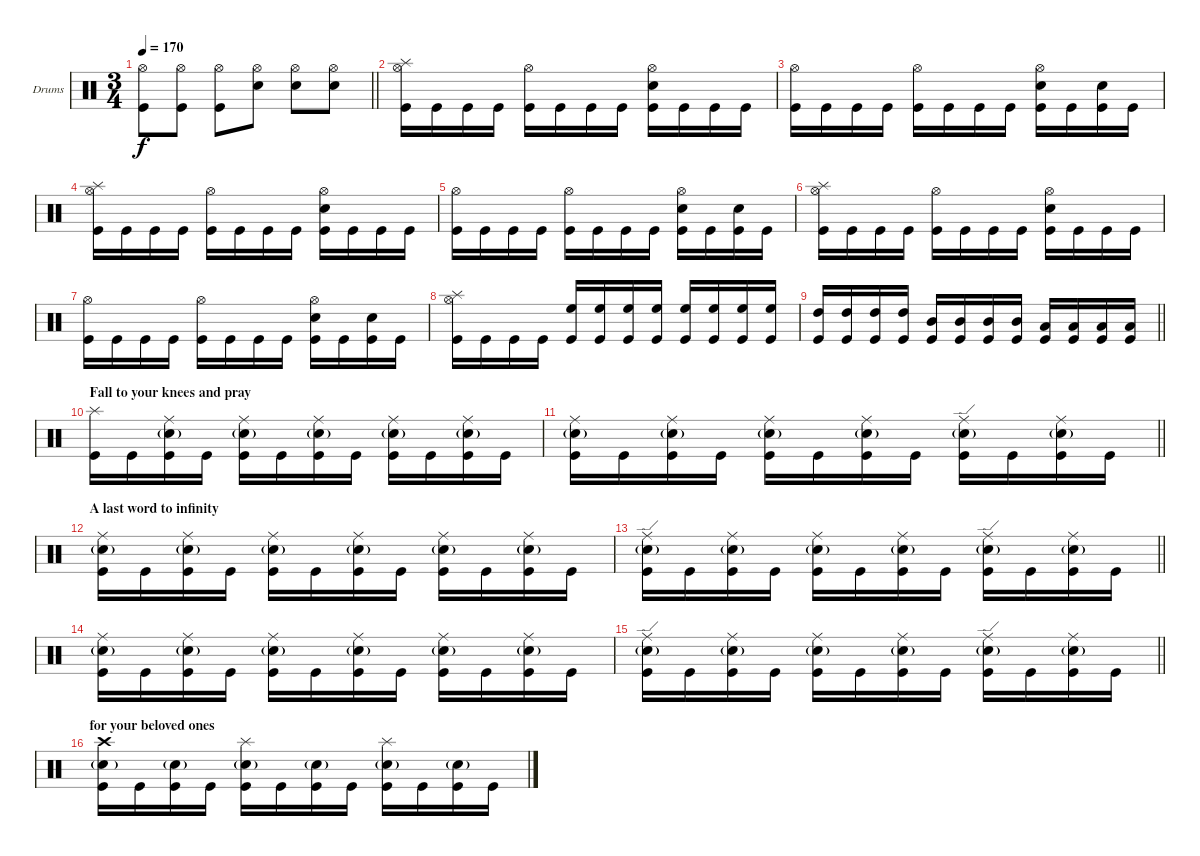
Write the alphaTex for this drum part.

\bracketExtendMode groupsimilarinstruments
\firstSystemTrackNameOrientation horizontal
\otherSystemsTrackNameOrientation horizontal
\track ("Drumkit" "Drums") {instrument percussion}
\staff {score}
\articulation defaults
\ts (3 4)
\tempo 170
\clef neutral
\barLineRight lightlight
\ks c
("Hi-Hat (open)" "Kick (hit)").8{dy f} ("Hi-Hat (open)" "Kick (hit)").8 ("Hi-Hat (open)" "Kick (hit)").8 ("Hi-Hat (open)" "Snare (hit) 2").8 ("Hi-Hat (open)" "Snare (hit) 2").8 ("Hi-Hat (open)" "Snare (hit) 2").8 |
("Splash (hit)" "Hi-Hat (open)" "Kick (hit)").16 "Kick (hit)".16 "Kick (hit)".16 "Kick (hit)".16 ("Hi-Hat (open)" "Kick (hit)").16 "Kick (hit)".16 "Kick (hit)".16 "Kick (hit)".16 ("Hi-Hat (open)" "Snare (hit) 2" "Kick (hit)").16 "Kick (hit)".16 "Kick (hit)".16 "Kick (hit)".16 |
("Hi-Hat (open)" "Kick (hit)").16 "Kick (hit)".16 "Kick (hit)".16 "Kick (hit)".16 ("Hi-Hat (open)" "Kick (hit)").16 "Kick (hit)".16 "Kick (hit)".16 "Kick (hit)".16 ("Hi-Hat (open)" "Snare (hit) 2" "Kick (hit)").16 "Kick (hit)".16 ("Snare (hit) 2" "Kick (hit)").16 "Kick (hit)".16 |
("Splash (hit)" "Hi-Hat (open)" "Kick (hit)").16 "Kick (hit)".16 "Kick (hit)".16 "Kick (hit)".16 ("Hi-Hat (open)" "Kick (hit)").16 "Kick (hit)".16 "Kick (hit)".16 "Kick (hit)".16 ("Hi-Hat (open)" "Snare (hit) 2" "Kick (hit)").16 "Kick (hit)".16 "Kick (hit)".16 "Kick (hit)".16 |
("Hi-Hat (open)" "Kick (hit)").16 "Kick (hit)".16 "Kick (hit)".16 "Kick (hit)".16 ("Hi-Hat (open)" "Kick (hit)").16 "Kick (hit)".16 "Kick (hit)".16 "Kick (hit)".16 ("Hi-Hat (open)" "Snare (hit) 2" "Kick (hit)").16 "Kick (hit)".16 ("Snare (hit) 2" "Kick (hit)").16 "Kick (hit)".16 |
("Splash (hit)" "Hi-Hat (open)" "Kick (hit)").16 "Kick (hit)".16 "Kick (hit)".16 "Kick (hit)".16 ("Hi-Hat (open)" "Kick (hit)").16 "Kick (hit)".16 "Kick (hit)".16 "Kick (hit)".16 ("Hi-Hat (open)" "Snare (hit) 2" "Kick (hit)").16 "Kick (hit)".16 "Kick (hit)".16 "Kick (hit)".16 |
("Hi-Hat (open)" "Kick (hit)").16 "Kick (hit)".16 "Kick (hit)".16 "Kick (hit)".16 ("Hi-Hat (open)" "Kick (hit)").16 "Kick (hit)".16 "Kick (hit)".16 "Kick (hit)".16 ("Hi-Hat (open)" "Snare (hit) 2" "Kick (hit)").16 "Kick (hit)".16 ("Snare (hit) 2" "Kick (hit)").16 "Kick (hit)".16 |
("Splash (hit)" "Hi-Hat (open)" "Kick (hit)").16 "Kick (hit)".16 "Kick (hit)".16 "Kick (hit)".16 ("High Floor Tom (hit)" "Kick (hit)").16 ("High Floor Tom (hit)" "Kick (hit)").16 ("High Floor Tom (hit)" "Kick (hit)").16 ("High Floor Tom (hit)" "Kick (hit)").16 ("High Floor Tom (hit)" "Kick (hit)").16 ("High Floor Tom (hit)" "Kick (hit)").16 ("High Floor Tom (hit)" "Kick (hit)").16 ("High Floor Tom (hit)" "Kick (hit)").16 |
\barLineRight lightlight
("High Tom (hit)" "Kick (hit)").16 ("High Tom (hit)" "Kick (hit)").16 ("High Tom (hit)" "Kick (hit)").16 ("High Tom (hit)" "Kick (hit)").16 ("Mid Tom (hit)" "Kick (hit)").16 ("Mid Tom (hit)" "Kick (hit)").16 ("Mid Tom (hit)" "Kick (hit)").16 ("Mid Tom (hit)" "Kick (hit)").16 ("Low Tom (hit)" "Kick (hit)").16 ("Low Tom (hit)" "Kick (hit)").16 ("Low Tom (hit)" "Kick (hit)").16 ("Low Tom (hit)" "Kick (hit)").16 |
\section ("" "Fall to your knees and pray")
("Splash (hit)" "Kick (hit)").16 "Kick (hit)".16 ("Ride (middle)" "Snare (hit) 2"{g} "Kick (hit)").16 "Kick (hit)".16 ("Ride (middle)" "Snare (hit) 2"{g} "Kick (hit)").16 "Kick (hit)".16 ("Ride (middle)" "Snare (hit) 2"{g} "Kick (hit)").16 "Kick (hit)".16 ("Ride (middle)" "Snare (hit) 2"{g} "Kick (hit)").16 "Kick (hit)".16 ("Ride (middle)" "Snare (hit) 2"{g} "Kick (hit)").16 "Kick (hit)".16 |
\barLineRight lightlight
("Ride (middle)" "Snare (hit) 2"{g} "Kick (hit)").16 "Kick (hit)".16 ("Ride (middle)" "Snare (hit) 2"{g} "Kick (hit)").16 "Kick (hit)".16 ("Ride (middle)" "Snare (hit) 2"{g} "Kick (hit)").16 "Kick (hit)".16 ("Ride (middle)" "Snare (hit) 2"{g} "Kick (hit)").16 "Kick (hit)".16 ("Ride (edge)" "Snare (hit) 2"{g} "Kick (hit)").16 "Kick (hit)".16 ("Ride (middle)" "Snare (hit) 2"{g} "Kick (hit)").16 "Kick (hit)".16 |
\section ("" "A last word to infinity")
("Ride (middle)" "Snare (hit) 2"{g} "Kick (hit)").16 "Kick (hit)".16 ("Ride (middle)" "Snare (hit) 2"{g} "Kick (hit)").16 "Kick (hit)".16 ("Ride (middle)" "Snare (hit) 2"{g} "Kick (hit)").16 "Kick (hit)".16 ("Ride (middle)" "Snare (hit) 2"{g} "Kick (hit)").16 "Kick (hit)".16 ("Ride (middle)" "Snare (hit) 2"{g} "Kick (hit)").16 "Kick (hit)".16 ("Ride (middle)" "Snare (hit) 2"{g} "Kick (hit)").16 "Kick (hit)".16 |
\barLineRight lightlight
("Ride (edge)" "Snare (hit) 2"{g} "Kick (hit)").16 "Kick (hit)".16 ("Ride (middle)" "Snare (hit) 2"{g} "Kick (hit)").16 "Kick (hit)".16 ("Ride (middle)" "Snare (hit) 2"{g} "Kick (hit)").16 "Kick (hit)".16 ("Ride (middle)" "Snare (hit) 2"{g} "Kick (hit)").16 "Kick (hit)".16 ("Ride (edge)" "Snare (hit) 2"{g} "Kick (hit)").16 "Kick (hit)".16 ("Ride (middle)" "Snare (hit) 2"{g} "Kick (hit)").16 "Kick (hit)".16 |
("Ride (middle)" "Snare (hit) 2"{g} "Kick (hit)").16 "Kick (hit)".16 ("Ride (middle)" "Snare (hit) 2"{g} "Kick (hit)").16 "Kick (hit)".16 ("Ride (middle)" "Snare (hit) 2"{g} "Kick (hit)").16 "Kick (hit)".16 ("Ride (middle)" "Snare (hit) 2"{g} "Kick (hit)").16 "Kick (hit)".16 ("Ride (middle)" "Snare (hit) 2"{g} "Kick (hit)").16 "Kick (hit)".16 ("Ride (middle)" "Snare (hit) 2"{g} "Kick (hit)").16 "Kick (hit)".16 |
\barLineRight lightlight
("Ride (edge)" "Snare (hit) 2"{g} "Kick (hit)").16 "Kick (hit)".16 ("Ride (middle)" "Snare (hit) 2"{g} "Kick (hit)").16 "Kick (hit)".16 ("Ride (middle)" "Snare (hit) 2"{g} "Kick (hit)").16 "Kick (hit)".16 ("Ride (middle)" "Snare (hit) 2"{g} "Kick (hit)").16 "Kick (hit)".16 ("Ride (edge)" "Snare (hit) 2"{g} "Kick (hit)").16 "Kick (hit)".16 ("Ride (middle)" "Snare (hit) 2"{g} "Kick (hit)").16 "Kick (hit)".16 |
\section ("" "for your beloved ones")
("Crash high (hit)" "Snare (hit) 2"{g} "Kick (hit)").16 "Kick (hit)".16 ("Snare (hit) 2"{g} "Kick (hit)").16 "Kick (hit)".16 ("Splash (hit)" "Snare (hit) 2"{g} "Kick (hit)").16 "Kick (hit)".16 ("Snare (hit) 2"{g} "Kick (hit)").16 "Kick (hit)".16 ("Splash (hit)" "Snare (hit) 2"{g} "Kick (hit)").16 "Kick (hit)".16 ("Snare (hit) 2"{g} "Kick (hit)").16 "Kick (hit)".16
